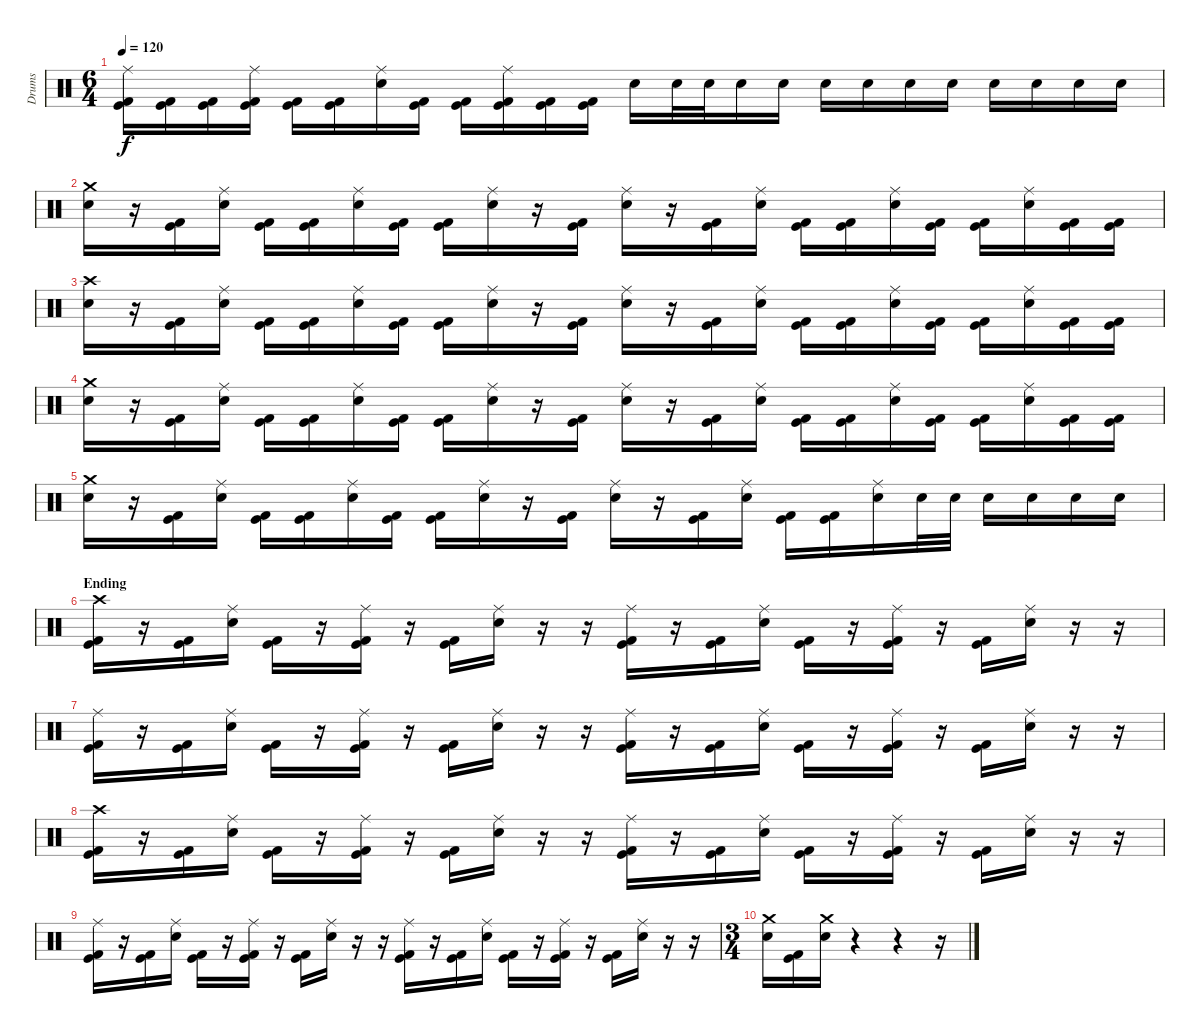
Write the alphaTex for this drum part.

\track ("Drums" "Drums") {instrument percussion}
\staff {score}
\articulation defaults
\ts (6 4)
\tempo 120
\clef neutral
\ks c
("Ride (middle)" "Kick (hit)" "Kick (hit) 2").16{dy f} ("Kick (hit)" "Kick (hit) 2").16 ("Kick (hit)" "Kick (hit) 2").16 ("Ride (middle)" "Kick (hit)" "Kick (hit) 2").16 ("Kick (hit)" "Kick (hit) 2").16 ("Kick (hit)" "Kick (hit) 2").16 ("Ride (middle)" "Electric Snare (hit)").16 ("Kick (hit)" "Kick (hit) 2").16 ("Kick (hit)" "Kick (hit) 2").16 ("Ride (middle)" "Kick (hit)" "Kick (hit) 2").16 ("Kick (hit)" "Kick (hit) 2").16 ("Kick (hit)" "Kick (hit) 2").16 "Electric Snare (hit)".16 "Electric Snare (hit)".32 "Electric Snare (hit)".32 "Electric Snare (hit)".16 "Electric Snare (hit)".16 "Electric Snare (hit)".16 "Electric Snare (hit)".16 "Electric Snare (hit)".16 "Electric Snare (hit)".16 "Electric Snare (hit)".16 "Electric Snare (hit)".16 "Electric Snare (hit)".16 "Electric Snare (hit)".16 |
("Crash medium (hit)" "Electric Snare (hit)").16 r.16 ("Kick (hit)" "Kick (hit) 2").16 ("Ride (middle)" "Electric Snare (hit)").16 ("Kick (hit)" "Kick (hit) 2").16 ("Kick (hit)" "Kick (hit) 2").16 ("Ride (middle)" "Electric Snare (hit)").16 ("Kick (hit)" "Kick (hit) 2").16 ("Kick (hit)" "Kick (hit) 2").16 ("Ride (middle)" "Electric Snare (hit)").16 r.16 ("Kick (hit)" "Kick (hit) 2").16 ("Ride (middle)" "Electric Snare (hit)").16 r.16 ("Kick (hit)" "Kick (hit) 2").16 ("Ride (middle)" "Electric Snare (hit)").16 ("Kick (hit)" "Kick (hit) 2").16 ("Kick (hit)" "Kick (hit) 2").16 ("Ride (middle)" "Electric Snare (hit)").16 ("Kick (hit)" "Kick (hit) 2").16 ("Kick (hit)" "Kick (hit) 2").16 ("Ride (middle)" "Electric Snare (hit)").16 ("Kick (hit)" "Kick (hit) 2").16 ("Kick (hit)" "Kick (hit) 2").16 |
("Crash high (hit)" "Electric Snare (hit)").16 r.16 ("Kick (hit)" "Kick (hit) 2").16 ("Ride (middle)" "Electric Snare (hit)").16 ("Kick (hit)" "Kick (hit) 2").16 ("Kick (hit)" "Kick (hit) 2").16 ("Ride (middle)" "Electric Snare (hit)").16 ("Kick (hit)" "Kick (hit) 2").16 ("Kick (hit)" "Kick (hit) 2").16 ("Ride (middle)" "Electric Snare (hit)").16 r.16 ("Kick (hit)" "Kick (hit) 2").16 ("Ride (middle)" "Electric Snare (hit)").16 r.16 ("Kick (hit)" "Kick (hit) 2").16 ("Ride (middle)" "Electric Snare (hit)").16 ("Kick (hit)" "Kick (hit) 2").16 ("Kick (hit)" "Kick (hit) 2").16 ("Ride (middle)" "Electric Snare (hit)").16 ("Kick (hit)" "Kick (hit) 2").16 ("Kick (hit)" "Kick (hit) 2").16 ("Ride (middle)" "Electric Snare (hit)").16 ("Kick (hit)" "Kick (hit) 2").16 ("Kick (hit)" "Kick (hit) 2").16 |
("Crash medium (hit)" "Electric Snare (hit)").16 r.16 ("Kick (hit)" "Kick (hit) 2").16 ("Ride (middle)" "Electric Snare (hit)").16 ("Kick (hit)" "Kick (hit) 2").16 ("Kick (hit)" "Kick (hit) 2").16 ("Ride (middle)" "Electric Snare (hit)").16 ("Kick (hit)" "Kick (hit) 2").16 ("Kick (hit)" "Kick (hit) 2").16 ("Ride (middle)" "Electric Snare (hit)").16 r.16 ("Kick (hit)" "Kick (hit) 2").16 ("Ride (middle)" "Electric Snare (hit)").16 r.16 ("Kick (hit)" "Kick (hit) 2").16 ("Ride (middle)" "Electric Snare (hit)").16 ("Kick (hit)" "Kick (hit) 2").16 ("Kick (hit)" "Kick (hit) 2").16 ("Ride (middle)" "Electric Snare (hit)").16 ("Kick (hit)" "Kick (hit) 2").16 ("Kick (hit)" "Kick (hit) 2").16 ("Ride (middle)" "Electric Snare (hit)").16 ("Kick (hit)" "Kick (hit) 2").16 ("Kick (hit)" "Kick (hit) 2").16 |
("Crash medium (hit)" "Electric Snare (hit)").16 r.16 ("Kick (hit)" "Kick (hit) 2").16 ("Ride (middle)" "Electric Snare (hit)").16 ("Kick (hit)" "Kick (hit) 2").16 ("Kick (hit)" "Kick (hit) 2").16 ("Ride (middle)" "Electric Snare (hit)").16 ("Kick (hit)" "Kick (hit) 2").16 ("Kick (hit)" "Kick (hit) 2").16 ("Ride (middle)" "Electric Snare (hit)").16 r.16 ("Kick (hit)" "Kick (hit) 2").16 ("Ride (middle)" "Electric Snare (hit)").16 r.16 ("Kick (hit)" "Kick (hit) 2").16 ("Ride (middle)" "Electric Snare (hit)").16 ("Kick (hit)" "Kick (hit) 2").16 ("Kick (hit)" "Kick (hit) 2").16 ("Ride (middle)" "Electric Snare (hit)").16 "Electric Snare (hit)".32 "Electric Snare (hit)".32 "Electric Snare (hit)".16 "Electric Snare (hit)".16 "Electric Snare (hit)".16 "Electric Snare (hit)".16 |
\section ("" "Ending")
("Crash high (hit)" "Kick (hit)" "Kick (hit) 2").16 r.16 ("Kick (hit)" "Kick (hit) 2").16 ("Ride (middle)" "Electric Snare (hit)").16 ("Kick (hit)" "Kick (hit) 2").16 r.16 ("Ride (middle)" "Kick (hit)" "Kick (hit) 2").16 r.16 ("Kick (hit)" "Kick (hit) 2").16 ("Ride (middle)" "Electric Snare (hit)").16 r.16 r.16 ("Ride (middle)" "Kick (hit)" "Kick (hit) 2").16 r.16 ("Kick (hit)" "Kick (hit) 2").16 ("Ride (middle)" "Electric Snare (hit)").16 ("Kick (hit)" "Kick (hit) 2").16 r.16 ("Ride (middle)" "Kick (hit)" "Kick (hit) 2").16 r.16 ("Kick (hit)" "Kick (hit) 2").16 ("Ride (middle)" "Electric Snare (hit)").16 r.16 r.16 |
("Ride (middle)" "Kick (hit)" "Kick (hit) 2").16 r.16 ("Kick (hit)" "Kick (hit) 2").16 ("Ride (middle)" "Electric Snare (hit)").16 ("Kick (hit)" "Kick (hit) 2").16 r.16 ("Ride (middle)" "Kick (hit)" "Kick (hit) 2").16 r.16 ("Kick (hit)" "Kick (hit) 2").16 ("Ride (middle)" "Electric Snare (hit)").16 r.16 r.16 ("Ride (middle)" "Kick (hit)" "Kick (hit) 2").16 r.16 ("Kick (hit)" "Kick (hit) 2").16 ("Ride (middle)" "Electric Snare (hit)").16 ("Kick (hit)" "Kick (hit) 2").16 r.16 ("Ride (middle)" "Kick (hit)" "Kick (hit) 2").16 r.16 ("Kick (hit)" "Kick (hit) 2").16 ("Ride (middle)" "Electric Snare (hit)").16 r.16 r.16 |
("Crash high (hit)" "Kick (hit)" "Kick (hit) 2").16 r.16 ("Kick (hit)" "Kick (hit) 2").16 ("Ride (middle)" "Electric Snare (hit)").16 ("Kick (hit)" "Kick (hit) 2").16 r.16 ("Ride (middle)" "Kick (hit)" "Kick (hit) 2").16 r.16 ("Kick (hit)" "Kick (hit) 2").16 ("Ride (middle)" "Electric Snare (hit)").16 r.16 r.16 ("Ride (middle)" "Kick (hit)" "Kick (hit) 2").16 r.16 ("Kick (hit)" "Kick (hit) 2").16 ("Ride (middle)" "Electric Snare (hit)").16 ("Kick (hit)" "Kick (hit) 2").16 r.16 ("Ride (middle)" "Kick (hit)" "Kick (hit) 2").16 r.16 ("Kick (hit)" "Kick (hit) 2").16 ("Ride (middle)" "Electric Snare (hit)").16 r.16 r.16 |
("Ride (middle)" "Kick (hit)" "Kick (hit) 2").16 r.16 ("Kick (hit)" "Kick (hit) 2").16 ("Ride (middle)" "Electric Snare (hit)").16 ("Kick (hit)" "Kick (hit) 2").16 r.16 ("Ride (middle)" "Kick (hit)" "Kick (hit) 2").16 r.16 ("Kick (hit)" "Kick (hit) 2").16 ("Ride (middle)" "Electric Snare (hit)").16 r.16 r.16 ("Ride (middle)" "Kick (hit)" "Kick (hit) 2").16 r.16 ("Kick (hit)" "Kick (hit) 2").16 ("Ride (middle)" "Electric Snare (hit)").16 ("Kick (hit)" "Kick (hit) 2").16 r.16 ("Ride (middle)" "Kick (hit)" "Kick (hit) 2").16 r.16 ("Kick (hit)" "Kick (hit) 2").16 ("Ride (middle)" "Electric Snare (hit)").16 r.16 r.16 |
\ts (3 4)
("Crash medium (hit)" "Electric Snare (hit)").16 ("Kick (hit)" "Kick (hit) 2").16 ("Crash medium (hit)" "Electric Snare (hit)").16 r.4 r.4 r.16
